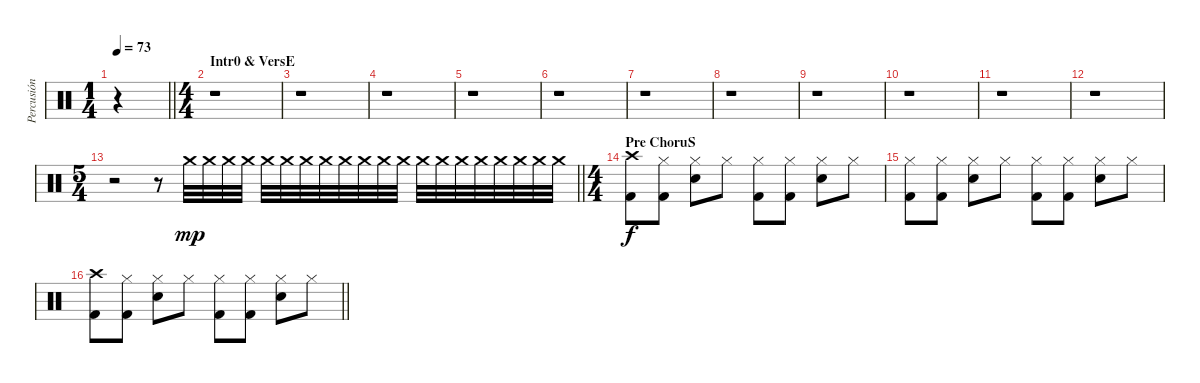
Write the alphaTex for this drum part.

\track ("Percusión" "Percusión") {instrument percussion}
\staff {score}
\articulation defaults
\ts (1 4)
\tempo 73
\clef neutral
\barLineRight lightlight
\ks c
r.4{dy mp} |
\ts (4 4)
\section ("" "Intr0 & VersE")
r.1 |
r.1 |
r.1 |
r.1 |
r.1 |
r.1 |
r.1 |
r.1 |
r.1 |
r.1 |
r.1 |
\ts (5 4)
\barLineRight lightlight
r.2{volume 6} r.8{volume 16} "Crash medium (hit)".32 "Crash medium (hit)".32 "Crash medium (hit)".32 "Crash medium (hit)".32 "Crash medium (hit)".32 "Crash medium (hit)".32 "Crash medium (hit)".32 "Crash medium (hit)".32 "Crash medium (hit)".32 "Crash medium (hit)".32 "Crash medium (hit)".32 "Crash medium (hit)".32 "Crash medium (hit)".32 "Crash medium (hit)".32 "Crash medium (hit)".32 "Crash medium (hit)".32 "Crash medium (hit)".32 "Crash medium (hit)".32 "Crash medium (hit)".32 "Crash medium (hit)".32 |
\ts (4 4)
\section ("" "Pre ChoruS")
("Crash high (hit)" "Kick (hit) 2").8{dy f} ("Hi-Hat (closed)" "Kick (hit) 2").8 ("Hi-Hat (closed)" "Electric Snare (hit)").8 "Hi-Hat (closed)".8 ("Hi-Hat (closed)" "Kick (hit) 2").8 ("Hi-Hat (closed)" "Kick (hit) 2").8 ("Hi-Hat (closed)" "Electric Snare (hit)").8 "Hi-Hat (closed)".8 |
("Hi-Hat (closed)" "Kick (hit) 2").8 ("Hi-Hat (closed)" "Kick (hit) 2").8 ("Hi-Hat (closed)" "Electric Snare (hit)").8 "Hi-Hat (closed)".8 ("Hi-Hat (closed)" "Kick (hit) 2").8 ("Hi-Hat (closed)" "Kick (hit) 2").8 ("Hi-Hat (closed)" "Electric Snare (hit)").8 "Hi-Hat (closed)".8 |
\barLineRight lightlight
("Crash high (hit)" "Kick (hit) 2").8 ("Hi-Hat (closed)" "Kick (hit) 2").8 ("Hi-Hat (closed)" "Electric Snare (hit)").8 "Hi-Hat (closed)".8 ("Hi-Hat (closed)" "Kick (hit) 2").8 ("Hi-Hat (closed)" "Kick (hit) 2").8 ("Hi-Hat (closed)" "Electric Snare (hit)").8 "Hi-Hat (closed)".8
